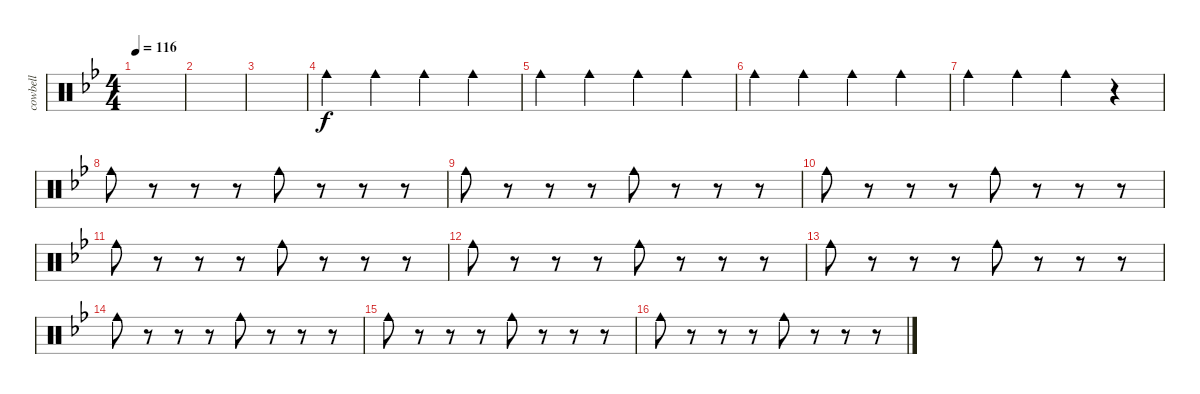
\track ("cowbell" "cowbell") {instrument percussion}
\staff {score}
\articulation defaults
\ts (4 4)
\tempo 116
\clef neutral
\ks bb
|
|
|
"Cowbell medium (hit)".4 "Cowbell medium (hit)".4 "Cowbell medium (hit)".4 "Cowbell medium (hit)".4 |
"Cowbell medium (hit)".4 "Cowbell medium (hit)".4 "Cowbell medium (hit)".4 "Cowbell medium (hit)".4 |
"Cowbell medium (hit)".4 "Cowbell medium (hit)".4 "Cowbell medium (hit)".4 "Cowbell medium (hit)".4 |
"Cowbell medium (hit)".4 "Cowbell medium (hit)".4 "Cowbell medium (hit)".4 r.4 |
"Cowbell medium (hit)".8 r.8 r.8 r.8 "Cowbell medium (hit)".8 r.8 r.8 r.8 |
"Cowbell medium (hit)".8 r.8 r.8 r.8 "Cowbell medium (hit)".8 r.8 r.8 r.8 |
"Cowbell medium (hit)".8 r.8 r.8 r.8 "Cowbell medium (hit)".8 r.8 r.8 r.8 |
"Cowbell medium (hit)".8 r.8 r.8 r.8 "Cowbell medium (hit)".8 r.8 r.8 r.8 |
"Cowbell medium (hit)".8 r.8 r.8 r.8 "Cowbell medium (hit)".8 r.8 r.8 r.8 |
"Cowbell medium (hit)".8 r.8 r.8 r.8 "Cowbell medium (hit)".8 r.8 r.8 r.8 |
"Cowbell medium (hit)".8 r.8 r.8 r.8 "Cowbell medium (hit)".8 r.8 r.8 r.8 |
"Cowbell medium (hit)".8 r.8 r.8 r.8 "Cowbell medium (hit)".8 r.8 r.8 r.8 |
"Cowbell medium (hit)".8 r.8 r.8 r.8 "Cowbell medium (hit)".8 r.8 r.8 r.8
